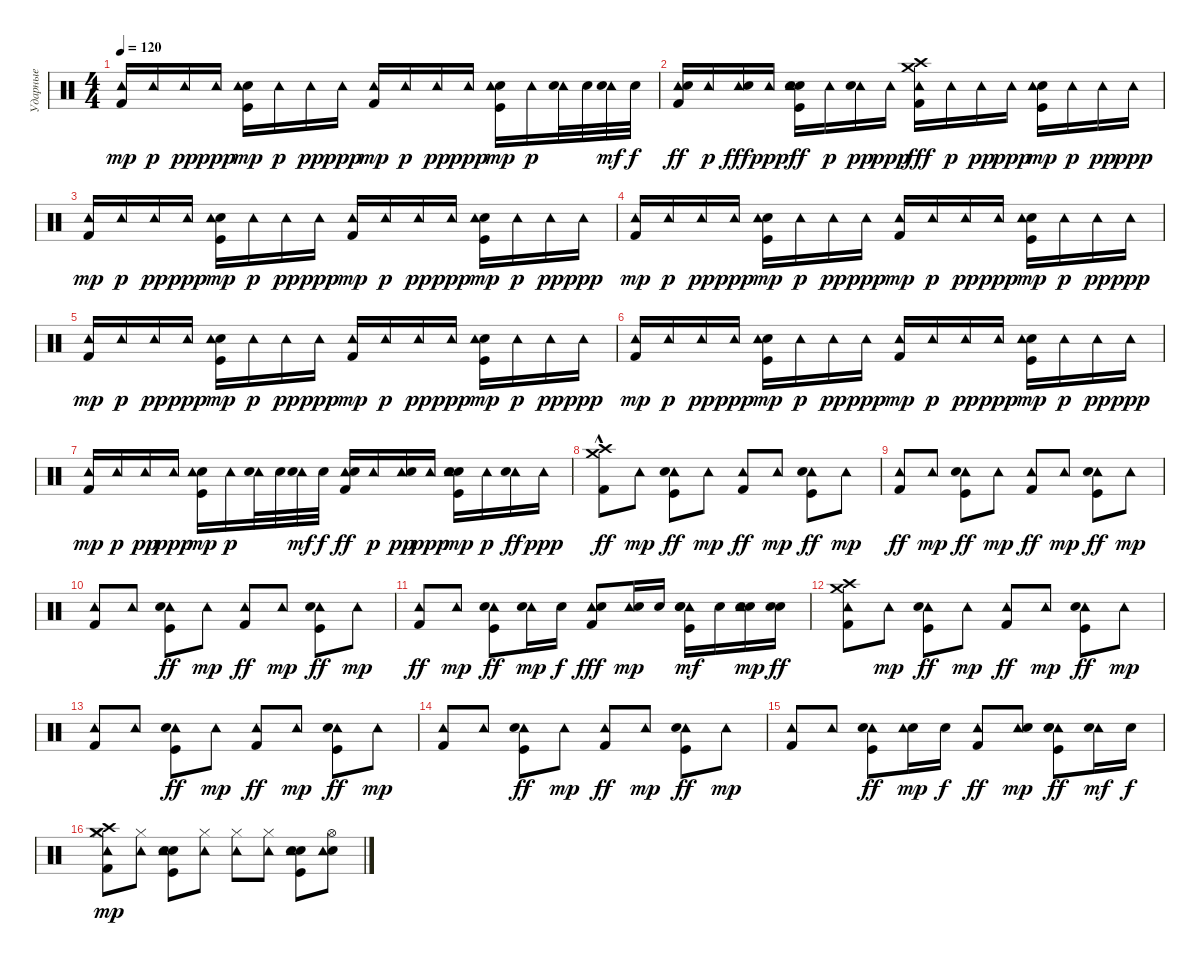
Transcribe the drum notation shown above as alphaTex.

\track ("Ударные" "Ударные") {instrument percussion}
\staff {score}
\articulation defaults
\ts (4 4)
\tempo 120
\clef neutral
\ks c
("Kick (hit) 2" "Tambourine (hit)").16{dy mp} "Tambourine (hit)".16{dy p} "Tambourine (hit)".16{dy pp} "Tambourine (hit)".16{dy ppp} ("Kick (hit)" "Snare (hit) 2" "Tambourine (hit)").16{dy mp} "Tambourine (hit)".16{dy p} "Tambourine (hit)".16{dy pp} "Tambourine (hit)".16{dy ppp} ("Kick (hit) 2" "Tambourine (hit)").16{dy mp} "Tambourine (hit)".16{dy p} "Tambourine (hit)".16{dy pp} "Tambourine (hit)".16{dy ppp} ("Kick (hit)" "Snare (hit) 2" "Tambourine (hit)").16{dy mp} "Tambourine (hit)".16{dy p} ("Tambourine (hit)" "Electric Snare (hit)").32 "Electric Snare (hit)".32 ("Tambourine (hit)" "Electric Snare (hit)").32{dy mf} "Electric Snare (hit)".32{dy f} |
("Kick (hit) 2" "Tambourine (hit)" "Electric Snare (hit)").16{dy ff} "Tambourine (hit)".16{dy p} ("Tambourine (hit)" "Electric Snare (hit)").16{dy fff} "Tambourine (hit)".16{dy ppp} ("Kick (hit)" "Snare (hit) 2" "Tambourine (hit)" "Electric Snare (hit)").16{dy ff} "Tambourine (hit)".16{dy p} ("Tambourine (hit)" "Electric Snare (hit)").16{dy pp} "Tambourine (hit)".16{dy ppp} ("Crash medium (hit)" "Kick (hit) 2" "Tambourine (hit)" "Crash high (hit)").16{dy fff} "Tambourine (hit)".16{dy p} "Tambourine (hit)".16{dy pp} "Tambourine (hit)".16{dy ppp} ("Kick (hit)" "Snare (hit) 2" "Tambourine (hit)").16{dy mp} "Tambourine (hit)".16{dy p} "Tambourine (hit)".16{dy pp} "Tambourine (hit)".16{dy ppp} |
("Kick (hit) 2" "Tambourine (hit)").16{dy mp} "Tambourine (hit)".16{dy p} "Tambourine (hit)".16{dy pp} "Tambourine (hit)".16{dy ppp} ("Kick (hit)" "Snare (hit) 2" "Tambourine (hit)").16{dy mp} "Tambourine (hit)".16{dy p} "Tambourine (hit)".16{dy pp} "Tambourine (hit)".16{dy ppp} ("Kick (hit) 2" "Tambourine (hit)").16{dy mp} "Tambourine (hit)".16{dy p} "Tambourine (hit)".16{dy pp} "Tambourine (hit)".16{dy ppp} ("Kick (hit)" "Snare (hit) 2" "Tambourine (hit)").16{dy mp} "Tambourine (hit)".16{dy p} "Tambourine (hit)".16{dy pp} "Tambourine (hit)".16{dy ppp} |
("Kick (hit) 2" "Tambourine (hit)").16{dy mp} "Tambourine (hit)".16{dy p} "Tambourine (hit)".16{dy pp} "Tambourine (hit)".16{dy ppp} ("Kick (hit)" "Snare (hit) 2" "Tambourine (hit)").16{dy mp} "Tambourine (hit)".16{dy p} "Tambourine (hit)".16{dy pp} "Tambourine (hit)".16{dy ppp} ("Kick (hit) 2" "Tambourine (hit)").16{dy mp} "Tambourine (hit)".16{dy p} "Tambourine (hit)".16{dy pp} "Tambourine (hit)".16{dy ppp} ("Kick (hit)" "Snare (hit) 2" "Tambourine (hit)").16{dy mp} "Tambourine (hit)".16{dy p} "Tambourine (hit)".16{dy pp} "Tambourine (hit)".16{dy ppp} |
("Kick (hit) 2" "Tambourine (hit)").16{dy mp} "Tambourine (hit)".16{dy p} "Tambourine (hit)".16{dy pp} "Tambourine (hit)".16{dy ppp} ("Kick (hit)" "Snare (hit) 2" "Tambourine (hit)").16{dy mp} "Tambourine (hit)".16{dy p} "Tambourine (hit)".16{dy pp} "Tambourine (hit)".16{dy ppp} ("Kick (hit) 2" "Tambourine (hit)").16{dy mp} "Tambourine (hit)".16{dy p} "Tambourine (hit)".16{dy pp} "Tambourine (hit)".16{dy ppp} ("Kick (hit)" "Snare (hit) 2" "Tambourine (hit)").16{dy mp} "Tambourine (hit)".16{dy p} "Tambourine (hit)".16{dy pp} "Tambourine (hit)".16{dy ppp} |
("Kick (hit) 2" "Tambourine (hit)").16{dy mp} "Tambourine (hit)".16{dy p} "Tambourine (hit)".16{dy pp} "Tambourine (hit)".16{dy ppp} ("Kick (hit)" "Snare (hit) 2" "Tambourine (hit)").16{dy mp} "Tambourine (hit)".16{dy p} "Tambourine (hit)".16{dy pp} "Tambourine (hit)".16{dy ppp} ("Kick (hit) 2" "Tambourine (hit)").16{dy mp} "Tambourine (hit)".16{dy p} "Tambourine (hit)".16{dy pp} "Tambourine (hit)".16{dy ppp} ("Kick (hit)" "Snare (hit) 2" "Tambourine (hit)").16{dy mp} "Tambourine (hit)".16{dy p} "Tambourine (hit)".16{dy pp} "Tambourine (hit)".16{dy ppp} |
("Kick (hit) 2" "Tambourine (hit)").16{dy mp} "Tambourine (hit)".16{dy p} "Tambourine (hit)".16{dy pp} "Tambourine (hit)".16{dy ppp} ("Kick (hit)" "Snare (hit) 2" "Tambourine (hit)").16{dy mp} "Tambourine (hit)".16{dy p} ("Tambourine (hit)" "Electric Snare (hit)").32 "Electric Snare (hit)".32 ("Tambourine (hit)" "Electric Snare (hit)").32{dy mf} "Electric Snare (hit)".32{dy f} ("Kick (hit) 2" "Tambourine (hit)" "Electric Snare (hit)").16{dy ff} "Tambourine (hit)".16{dy p} ("Tambourine (hit)" "Electric Snare (hit)").16{dy pp} "Tambourine (hit)".16{dy ppp} ("Kick (hit)" "Snare (hit) 2" "Tambourine (hit)" "Electric Snare (hit)").16{dy mp} "Tambourine (hit)".16{dy p} ("Tambourine (hit)" "Electric Snare (hit)").16{dy ff} "Tambourine (hit)".16{dy ppp} |
("Kick (hit) 2" "Crash medium (hit)"{hac} "Crash high (hit)"{hac}).8{dy ff} "Tambourine (hit)".8{dy mp} ("Tambourine (hit)" "Kick (hit)" "Snare (hit) 2").8{dy ff} "Tambourine (hit)".8{dy mp} ("Tambourine (hit)" "Kick (hit) 2").8{dy ff} "Tambourine (hit)".8{dy mp} ("Tambourine (hit)" "Kick (hit)" "Snare (hit) 2").8{dy ff} "Tambourine (hit)".8{dy mp} |
("Tambourine (hit)" "Kick (hit) 2").8{dy ff} "Tambourine (hit)".8{dy mp} ("Tambourine (hit)" "Kick (hit)" "Snare (hit) 2").8{dy ff} "Tambourine (hit)".8{dy mp} ("Tambourine (hit)" "Kick (hit) 2").8{dy ff} "Tambourine (hit)".8{dy mp} ("Tambourine (hit)" "Kick (hit)" "Snare (hit) 2").8{dy ff} "Tambourine (hit)".8{dy mp} |
("Kick (hit) 2" "Tambourine (hit)").8 "Tambourine (hit)".8 ("Tambourine (hit)" "Kick (hit)" "Snare (hit) 2").8{dy ff} "Tambourine (hit)".8{dy mp} ("Tambourine (hit)" "Kick (hit) 2").8{dy ff} "Tambourine (hit)".8{dy mp} ("Tambourine (hit)" "Kick (hit)" "Snare (hit) 2").8{dy ff} "Tambourine (hit)".8{dy mp} |
("Tambourine (hit)" "Kick (hit) 2").8{dy ff} "Tambourine (hit)".8{dy mp} ("Tambourine (hit)" "Kick (hit)" "Snare (hit) 2").8{dy ff} ("Tambourine (hit)" "Electric Snare (hit)").16{dy mp} "Electric Snare (hit)".16{dy f} ("Tambourine (hit)" "Kick (hit) 2" "Electric Snare (hit)").8{dy fff} ("Tambourine (hit)" "Electric Snare (hit)").16{dy mp} "Electric Snare (hit)".16 ("Tambourine (hit)" "Kick (hit)" "Snare (hit) 2" "Electric Snare (hit)").16{dy mf} "Electric Snare (hit)".16 ("Electric Snare (hit)" "Tambourine (hit)" "Electric Snare (hit)").16{dy mp} ("Electric Snare (hit)" "Electric Snare (hit)").16{dy ff} |
("Crash high (hit)" "Crash medium (hit)" "Tambourine (hit)" "Kick (hit) 2").8 "Tambourine (hit)".8{dy mp} ("Tambourine (hit)" "Kick (hit)" "Snare (hit) 2").8{dy ff} "Tambourine (hit)".8{dy mp} ("Tambourine (hit)" "Kick (hit) 2").8{dy ff} "Tambourine (hit)".8{dy mp} ("Tambourine (hit)" "Kick (hit)" "Snare (hit) 2").8{dy ff} "Tambourine (hit)".8{dy mp} |
("Kick (hit) 2" "Tambourine (hit)").8 "Tambourine (hit)".8 ("Tambourine (hit)" "Kick (hit)" "Snare (hit) 2").8{dy ff} "Tambourine (hit)".8{dy mp} ("Tambourine (hit)" "Kick (hit) 2").8{dy ff} "Tambourine (hit)".8{dy mp} ("Tambourine (hit)" "Kick (hit)" "Snare (hit) 2").8{dy ff} "Tambourine (hit)".8{dy mp} |
("Kick (hit) 2" "Tambourine (hit)").8 "Tambourine (hit)".8 ("Tambourine (hit)" "Kick (hit)" "Snare (hit) 2").8{dy ff} "Tambourine (hit)".8{dy mp} ("Tambourine (hit)" "Kick (hit) 2").8{dy ff} "Tambourine (hit)".8{dy mp} ("Tambourine (hit)" "Kick (hit)" "Snare (hit) 2").8{dy ff} "Tambourine (hit)".8{dy mp} |
("Kick (hit) 2" "Tambourine (hit)").8 "Tambourine (hit)".8 ("Tambourine (hit)" "Kick (hit)" "Snare (hit) 2").8{dy ff} ("Electric Snare (hit)" "Tambourine (hit)").16{dy mp} "Electric Snare (hit)".16{dy f} ("Tambourine (hit)" "Kick (hit) 2").8{dy ff} ("Tambourine (hit)" "Electric Snare (hit)").8{dy mp} ("Tambourine (hit)" "Kick (hit)" "Snare (hit) 2" "Electric Snare (hit)").8{dy ff} ("Tambourine (hit)" "Electric Snare (hit)").16{dy mf} "Electric Snare (hit)".16{dy f} |
("Crash high (hit)" "Crash medium (hit)" "Hi-Hat (closed)" "Kick (hit) 2" "Tambourine (hit)").8{dy mp} ("Hi-Hat (closed)" "Tambourine (hit)").8 ("Electric Snare (hit)" "Kick (hit)" "Snare (hit) 2" "Tambourine (hit)").8 ("Hi-Hat (closed)" "Tambourine (hit)").8 ("Hi-Hat (closed)" "Tambourine (hit)").8 ("Hi-Hat (closed)" "Tambourine (hit)").8 ("Electric Snare (hit)" "Kick (hit)" "Snare (hit) 2" "Tambourine (hit)").8 ("Hi-Hat (open)" "Electric Snare (hit)" "Tambourine (hit)").8
